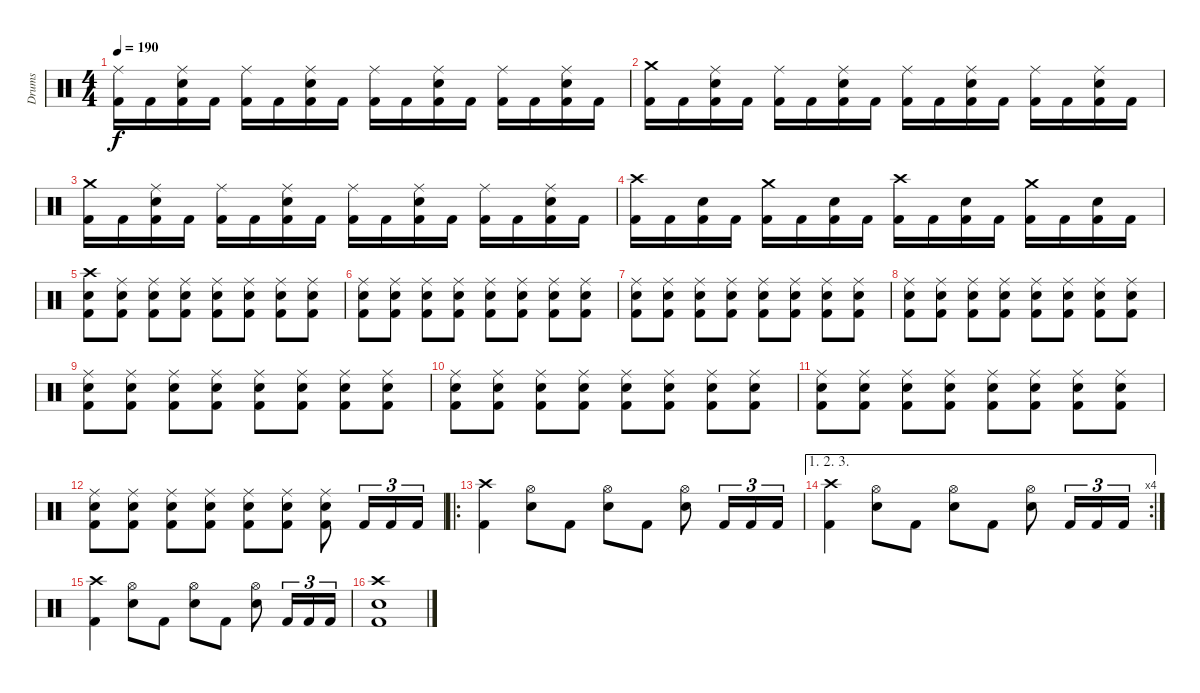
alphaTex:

\track ("Drums" "Drums") {instrument percussion}
\staff {score}
\articulation defaults
\ts (4 4)
\tempo 190
\clef neutral
\ks c
("Ride (middle)" "Kick (hit) 2").16{dy f} "Kick (hit) 2".16 ("Ride (middle)" "Electric Snare (hit)" "Kick (hit) 2").16 "Kick (hit) 2".16 ("Ride (middle)" "Kick (hit) 2").16 "Kick (hit) 2".16 ("Ride (middle)" "Electric Snare (hit)" "Kick (hit) 2").16 "Kick (hit) 2".16 ("Ride (middle)" "Kick (hit) 2").16 "Kick (hit) 2".16 ("Ride (middle)" "Electric Snare (hit)" "Kick (hit) 2").16 "Kick (hit) 2".16 ("Ride (middle)" "Kick (hit) 2").16 "Kick (hit) 2".16 ("Ride (middle)" "Electric Snare (hit)" "Kick (hit) 2").16 "Kick (hit) 2".16 |
("Crash medium (hit)" "Kick (hit) 2").16 "Kick (hit) 2".16 ("Ride (middle)" "Electric Snare (hit)" "Kick (hit) 2").16 "Kick (hit) 2".16 ("Ride (middle)" "Kick (hit) 2").16 "Kick (hit) 2".16 ("Ride (middle)" "Electric Snare (hit)" "Kick (hit) 2").16 "Kick (hit) 2".16 ("Ride (middle)" "Kick (hit) 2").16 "Kick (hit) 2".16 ("Ride (middle)" "Electric Snare (hit)" "Kick (hit) 2").16 "Kick (hit) 2".16 ("Ride (middle)" "Kick (hit) 2").16 "Kick (hit) 2".16 ("Ride (middle)" "Electric Snare (hit)" "Kick (hit) 2").16 "Kick (hit) 2".16 |
("Crash medium (hit)" "Kick (hit) 2").16 "Kick (hit) 2".16 ("Ride (middle)" "Electric Snare (hit)" "Kick (hit) 2").16 "Kick (hit) 2".16 ("Ride (middle)" "Kick (hit) 2").16 "Kick (hit) 2".16 ("Ride (middle)" "Electric Snare (hit)" "Kick (hit) 2").16 "Kick (hit) 2".16 ("Ride (middle)" "Kick (hit) 2").16 "Kick (hit) 2".16 ("Ride (middle)" "Electric Snare (hit)" "Kick (hit) 2").16 "Kick (hit) 2".16 ("Ride (middle)" "Kick (hit) 2").16 "Kick (hit) 2".16 ("Ride (middle)" "Electric Snare (hit)" "Kick (hit) 2").16 "Kick (hit) 2".16 |
("Crash high (hit)" "Kick (hit) 2").16 "Kick (hit) 2".16 ("Electric Snare (hit)" "Kick (hit) 2").16 "Kick (hit) 2".16 ("Crash medium (hit)" "Kick (hit) 2").16 "Kick (hit) 2".16 ("Electric Snare (hit)" "Kick (hit) 2").16 "Kick (hit) 2".16 ("Crash high (hit)" "Kick (hit) 2").16 "Kick (hit) 2".16 ("Electric Snare (hit)" "Kick (hit) 2").16 "Kick (hit) 2".16 ("Crash medium (hit)" "Kick (hit) 2").16 "Kick (hit) 2".16 ("Electric Snare (hit)" "Kick (hit) 2").16 "Kick (hit) 2".16 |
("Crash high (hit)" "Electric Snare (hit)" "Kick (hit) 2").8 ("Ride (middle)" "Electric Snare (hit)" "Kick (hit) 2").8 ("Ride (middle)" "Electric Snare (hit)" "Kick (hit) 2").8 ("Ride (middle)" "Electric Snare (hit)" "Kick (hit) 2").8 ("Ride (middle)" "Electric Snare (hit)" "Kick (hit) 2").8 ("Ride (middle)" "Electric Snare (hit)" "Kick (hit) 2").8 ("Ride (middle)" "Electric Snare (hit)" "Kick (hit) 2").8 ("Ride (middle)" "Electric Snare (hit)" "Kick (hit) 2").8 |
("Ride (middle)" "Electric Snare (hit)" "Kick (hit) 2").8 ("Ride (middle)" "Electric Snare (hit)" "Kick (hit) 2").8 ("Ride (middle)" "Electric Snare (hit)" "Kick (hit) 2").8 ("Ride (middle)" "Electric Snare (hit)" "Kick (hit) 2").8 ("Ride (middle)" "Electric Snare (hit)" "Kick (hit) 2").8 ("Ride (middle)" "Electric Snare (hit)" "Kick (hit) 2").8 ("Ride (middle)" "Electric Snare (hit)" "Kick (hit) 2").8 ("Ride (middle)" "Electric Snare (hit)" "Kick (hit) 2").8 |
("Ride (middle)" "Electric Snare (hit)" "Kick (hit) 2").8 ("Ride (middle)" "Electric Snare (hit)" "Kick (hit) 2").8 ("Ride (middle)" "Electric Snare (hit)" "Kick (hit) 2").8 ("Ride (middle)" "Electric Snare (hit)" "Kick (hit) 2").8 ("Ride (middle)" "Electric Snare (hit)" "Kick (hit) 2").8 ("Ride (middle)" "Electric Snare (hit)" "Kick (hit) 2").8 ("Ride (middle)" "Electric Snare (hit)" "Kick (hit) 2").8 ("Ride (middle)" "Electric Snare (hit)" "Kick (hit) 2").8 |
("Ride (middle)" "Electric Snare (hit)" "Kick (hit) 2").8 ("Ride (middle)" "Electric Snare (hit)" "Kick (hit) 2").8 ("Ride (middle)" "Electric Snare (hit)" "Kick (hit) 2").8 ("Ride (middle)" "Electric Snare (hit)" "Kick (hit) 2").8 ("Ride (middle)" "Electric Snare (hit)" "Kick (hit) 2").8 ("Ride (middle)" "Electric Snare (hit)" "Kick (hit) 2").8 ("Ride (middle)" "Electric Snare (hit)" "Kick (hit) 2").8 ("Ride (middle)" "Electric Snare (hit)" "Kick (hit) 2").8 |
("Ride (middle)" "Electric Snare (hit)" "Kick (hit) 2").8 ("Ride (middle)" "Electric Snare (hit)" "Kick (hit) 2").8 ("Ride (middle)" "Electric Snare (hit)" "Kick (hit) 2").8 ("Ride (middle)" "Electric Snare (hit)" "Kick (hit) 2").8 ("Ride (middle)" "Electric Snare (hit)" "Kick (hit) 2").8 ("Ride (middle)" "Electric Snare (hit)" "Kick (hit) 2").8 ("Ride (middle)" "Electric Snare (hit)" "Kick (hit) 2").8 ("Ride (middle)" "Electric Snare (hit)" "Kick (hit) 2").8 |
("Ride (middle)" "Electric Snare (hit)" "Kick (hit) 2").8 ("Ride (middle)" "Electric Snare (hit)" "Kick (hit) 2").8 ("Ride (middle)" "Electric Snare (hit)" "Kick (hit) 2").8 ("Ride (middle)" "Electric Snare (hit)" "Kick (hit) 2").8 ("Ride (middle)" "Electric Snare (hit)" "Kick (hit) 2").8 ("Ride (middle)" "Electric Snare (hit)" "Kick (hit) 2").8 ("Ride (middle)" "Electric Snare (hit)" "Kick (hit) 2").8 ("Ride (middle)" "Electric Snare (hit)" "Kick (hit) 2").8 |
("Ride (middle)" "Electric Snare (hit)" "Kick (hit) 2").8 ("Ride (middle)" "Electric Snare (hit)" "Kick (hit) 2").8 ("Ride (middle)" "Electric Snare (hit)" "Kick (hit) 2").8 ("Ride (middle)" "Electric Snare (hit)" "Kick (hit) 2").8 ("Ride (middle)" "Electric Snare (hit)" "Kick (hit) 2").8 ("Ride (middle)" "Electric Snare (hit)" "Kick (hit) 2").8 ("Ride (middle)" "Electric Snare (hit)" "Kick (hit) 2").8 ("Ride (middle)" "Electric Snare (hit)" "Kick (hit) 2").8 |
("Ride (middle)" "Electric Snare (hit)" "Kick (hit) 2").8 ("Ride (middle)" "Electric Snare (hit)" "Kick (hit) 2").8 ("Ride (middle)" "Electric Snare (hit)" "Kick (hit) 2").8 ("Ride (middle)" "Electric Snare (hit)" "Kick (hit) 2").8 ("Ride (middle)" "Electric Snare (hit)" "Kick (hit) 2").8 ("Ride (middle)" "Electric Snare (hit)" "Kick (hit) 2").8 ("Ride (middle)" "Electric Snare (hit)" "Kick (hit) 2").8 "Kick (hit) 2".16{tu (3 2)} "Kick (hit) 2".16{tu (3 2)} "Kick (hit) 2".16{tu (3 2)} |
\ro
("Crash high (hit)" "Kick (hit) 2").4 ("Hi-Hat (open)" "Electric Snare (hit)").8 "Kick (hit) 2".8 ("Hi-Hat (open)" "Electric Snare (hit)").8 "Kick (hit) 2".8 ("Hi-Hat (open)" "Electric Snare (hit)").8 "Kick (hit) 2".16{tu (3 2)} "Kick (hit) 2".16{tu (3 2)} "Kick (hit) 2".16{tu (3 2)} |
\ae (1 2 3)
\rc 4
("Crash high (hit)" "Kick (hit) 2").4 ("Hi-Hat (open)" "Electric Snare (hit)").8 "Kick (hit) 2".8 ("Hi-Hat (open)" "Electric Snare (hit)").8 "Kick (hit) 2".8 ("Hi-Hat (open)" "Electric Snare (hit)").8 "Kick (hit) 2".16{tu (3 2)} "Kick (hit) 2".16{tu (3 2)} "Kick (hit) 2".16{tu (3 2)} |
("Crash high (hit)" "Kick (hit) 2").4 ("Hi-Hat (open)" "Electric Snare (hit)").8 "Kick (hit) 2".8 ("Hi-Hat (open)" "Electric Snare (hit)").8 "Kick (hit) 2".8 ("Hi-Hat (open)" "Electric Snare (hit)").8 "Kick (hit) 2".16{tu (3 2)} "Kick (hit) 2".16{tu (3 2)} "Kick (hit) 2".16{tu (3 2)} |
("Crash high (hit)" "Electric Snare (hit)" "Kick (hit) 2").1
